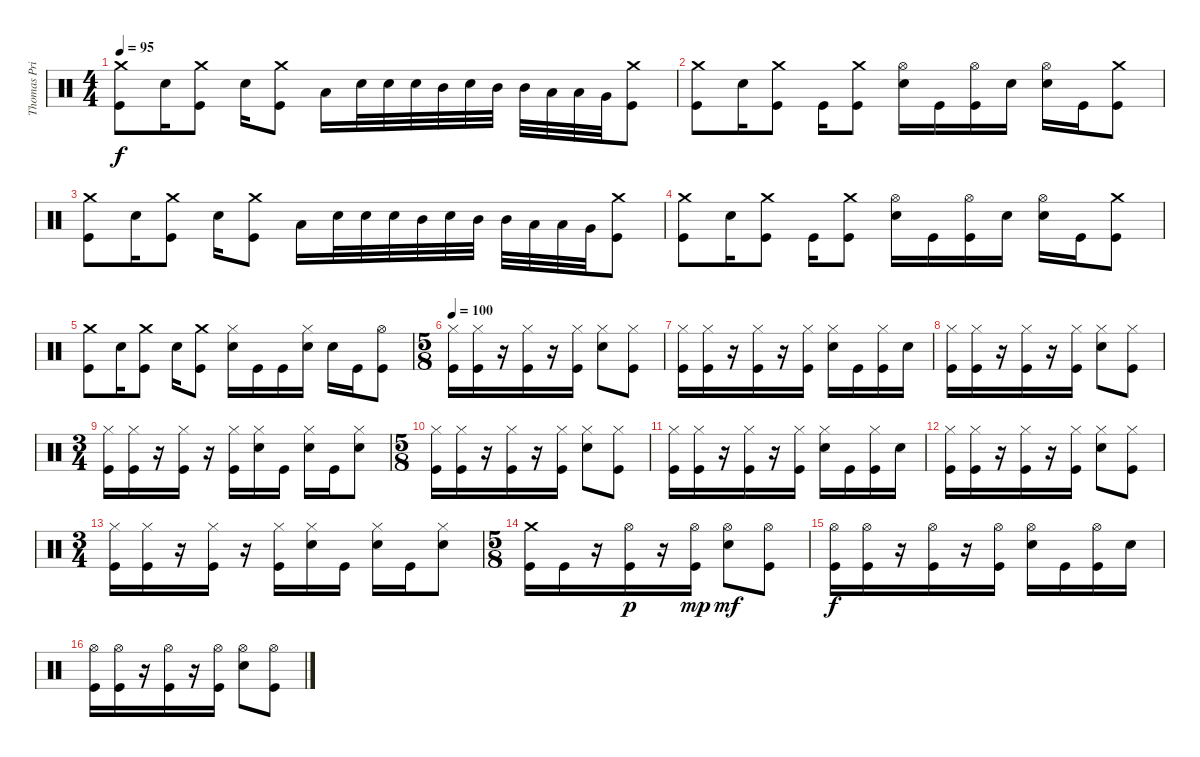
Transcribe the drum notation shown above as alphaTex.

\track ("Thomas Pridgen [Drum]" "Thomas Pri") {instrument percussion}
\staff {score}
\articulation defaults
\ts (4 4)
\tempo 95
\clef neutral
\ks c
("Crash medium (hit)" "Kick (hit)").8{dy f} "Electric Snare (hit)".16 ("Crash medium (hit)" "Kick (hit)").8 "Electric Snare (hit)".16 ("Crash medium (hit)" "Kick (hit)").8 "Low Tom (hit)".16 "Electric Snare (hit)".32 "Electric Snare (hit)".32 "Electric Snare (hit)".32 "Mid Tom (hit)".32 "Electric Snare (hit)".32 "Mid Tom (hit)".32 "Mid Tom (hit)".32 "Low Tom (hit)".32 "Low Tom (hit)".32 "Very Low Tom (hit)".32 ("Crash medium (hit)" "Kick (hit)").8 |
("Crash medium (hit)" "Kick (hit)").8 "Electric Snare (hit)".16 ("Crash medium (hit)" "Kick (hit)").8 "Kick (hit)".16 ("Crash medium (hit)" "Kick (hit)").8 ("Hi-Hat (open)" "Electric Snare (hit)").16 "Kick (hit)".16 ("Hi-Hat (open)" "Kick (hit)").16 "Electric Snare (hit)".16 ("Hi-Hat (open)" "Electric Snare (hit)").16 "Kick (hit)".16 ("Crash medium (hit)" "Kick (hit)").8 |
("Crash medium (hit)" "Kick (hit)").8 "Electric Snare (hit)".16 ("Crash medium (hit)" "Kick (hit)").8 "Electric Snare (hit)".16 ("Crash medium (hit)" "Kick (hit)").8 "Low Tom (hit)".16 "Electric Snare (hit)".32 "Electric Snare (hit)".32 "Electric Snare (hit)".32 "Mid Tom (hit)".32 "Electric Snare (hit)".32 "Mid Tom (hit)".32 "Mid Tom (hit)".32 "Low Tom (hit)".32 "Low Tom (hit)".32 "Very Low Tom (hit)".32 ("Crash medium (hit)" "Kick (hit)").8 |
("Crash medium (hit)" "Kick (hit)").8 "Electric Snare (hit)".16 ("Crash medium (hit)" "Kick (hit)").8 "Kick (hit)".16 ("Crash medium (hit)" "Kick (hit)").8 ("Hi-Hat (open)" "Electric Snare (hit)").16 "Kick (hit)".16 ("Hi-Hat (open)" "Kick (hit)").16 "Electric Snare (hit)".16 ("Hi-Hat (open)" "Electric Snare (hit)").16 "Kick (hit)".16 ("Crash medium (hit)" "Kick (hit)").8 |
("Crash medium (hit)" "Kick (hit)").8 "Electric Snare (hit)".16 ("Crash medium (hit)" "Kick (hit)").8 "Electric Snare (hit)".16 ("Crash medium (hit)" "Kick (hit)").8 ("Hi-Hat (closed)" "Electric Snare (hit)").16 "Kick (hit)".16 "Kick (hit)".16 ("Hi-Hat (closed)" "Electric Snare (hit)").16 "Electric Snare (hit)".16 "Kick (hit)".16 ("Hi-Hat (open)" "Kick (hit)").8 |
\ts (5 8)
\tempo 100
("Hi-Hat (closed)" "Kick (hit)").16 ("Hi-Hat (closed)" "Kick (hit)").16 r.16 ("Hi-Hat (closed)" "Kick (hit)").16 r.16 ("Hi-Hat (closed)" "Kick (hit)").16 ("Hi-Hat (closed)" "Electric Snare (hit)").8 ("Hi-Hat (closed)" "Kick (hit)").8 |
("Hi-Hat (closed)" "Kick (hit)").16 ("Hi-Hat (closed)" "Kick (hit)").16 r.16 ("Hi-Hat (closed)" "Kick (hit)").16 r.16 ("Hi-Hat (closed)" "Kick (hit)").16 ("Hi-Hat (closed)" "Electric Snare (hit)").16 "Kick (hit)".16 ("Hi-Hat (closed)" "Kick (hit)").16 "Electric Snare (hit)".16 |
("Hi-Hat (closed)" "Kick (hit)").16 ("Hi-Hat (closed)" "Kick (hit)").16 r.16 ("Hi-Hat (closed)" "Kick (hit)").16 r.16 ("Hi-Hat (closed)" "Kick (hit)").16 ("Hi-Hat (closed)" "Electric Snare (hit)").8 ("Hi-Hat (closed)" "Kick (hit)").8 |
\ts (3 4)
("Hi-Hat (closed)" "Kick (hit)").16 ("Hi-Hat (closed)" "Kick (hit)").16 r.16 ("Hi-Hat (closed)" "Kick (hit)").16 r.16 ("Hi-Hat (closed)" "Kick (hit)").16 ("Hi-Hat (closed)" "Electric Snare (hit)").16 "Kick (hit)".16 ("Hi-Hat (closed)" "Electric Snare (hit)").16 "Kick (hit)".16 ("Hi-Hat (closed)" "Electric Snare (hit)").8 |
\ts (5 8)
("Hi-Hat (closed)" "Kick (hit)").16 ("Hi-Hat (closed)" "Kick (hit)").16 r.16 ("Hi-Hat (closed)" "Kick (hit)").16 r.16 ("Hi-Hat (closed)" "Kick (hit)").16 ("Hi-Hat (closed)" "Electric Snare (hit)").8 ("Hi-Hat (closed)" "Kick (hit)").8 |
("Hi-Hat (closed)" "Kick (hit)").16 ("Hi-Hat (closed)" "Kick (hit)").16 r.16 ("Hi-Hat (closed)" "Kick (hit)").16 r.16 ("Hi-Hat (closed)" "Kick (hit)").16 ("Hi-Hat (closed)" "Electric Snare (hit)").16 "Kick (hit)".16 ("Hi-Hat (closed)" "Kick (hit)").16 "Electric Snare (hit)".16 |
("Hi-Hat (closed)" "Kick (hit)").16 ("Hi-Hat (closed)" "Kick (hit)").16 r.16 ("Hi-Hat (closed)" "Kick (hit)").16 r.16 ("Hi-Hat (closed)" "Kick (hit)").16 ("Hi-Hat (closed)" "Electric Snare (hit)").8 ("Hi-Hat (closed)" "Kick (hit)").8 |
\ts (3 4)
("Hi-Hat (closed)" "Kick (hit)").16 ("Hi-Hat (closed)" "Kick (hit)").16 r.16 ("Hi-Hat (closed)" "Kick (hit)").16 r.16 ("Hi-Hat (closed)" "Kick (hit)").16 ("Hi-Hat (closed)" "Electric Snare (hit)").16 "Kick (hit)".16 ("Hi-Hat (closed)" "Electric Snare (hit)").16 "Kick (hit)".16 ("Hi-Hat (closed)" "Electric Snare (hit)").8 |
\ts (5 8)
("Crash medium (hit)" "Kick (hit)").16 "Kick (hit)".16 r.16 ("Hi-Hat (open)" "Kick (hit)").16{dy p} r.16 ("Hi-Hat (open)" "Kick (hit)").16{dy mp} ("Hi-Hat (open)" "Electric Snare (hit)").8{dy mf} ("Hi-Hat (open)" "Kick (hit)").8 |
("Hi-Hat (open)" "Kick (hit)").16{dy f} ("Hi-Hat (open)" "Kick (hit)").16 r.16 ("Hi-Hat (open)" "Kick (hit)").16 r.16 ("Hi-Hat (open)" "Kick (hit)").16 ("Hi-Hat (open)" "Electric Snare (hit)").16 "Kick (hit)".16 ("Hi-Hat (open)" "Kick (hit)").16 "Electric Snare (hit)".16 |
("Hi-Hat (open)" "Kick (hit)").16 ("Hi-Hat (open)" "Kick (hit)").16 r.16 ("Hi-Hat (open)" "Kick (hit)").16 r.16 ("Hi-Hat (open)" "Kick (hit)").16 ("Hi-Hat (open)" "Electric Snare (hit)").8 ("Hi-Hat (open)" "Kick (hit)").8
